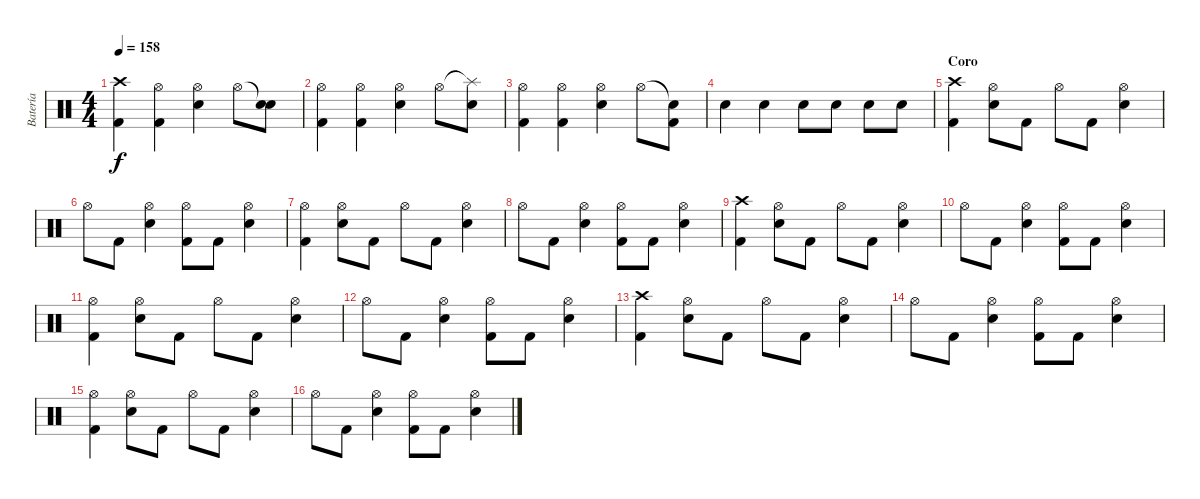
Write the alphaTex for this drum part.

\track ("Batería" "Batería") {instrument percussion}
\staff {score}
\articulation defaults
\ts (4 4)
\tempo 158
\clef neutral
\ks c
("Crash high (hit)" "Kick (hit) 2").4{dy f} ("Hi-Hat (open)" "Kick (hit) 2").4 ("Hi-Hat (open)" "Electric Snare (hit)").4 "Hi-Hat (open)".8 ("Snare (hit)"{t} "Electric Snare (hit)").8 |
("Hi-Hat (open)" "Kick (hit) 2").4 ("Hi-Hat (open)" "Kick (hit) 2").4 ("Hi-Hat (open)" "Electric Snare (hit)").4 "Hi-Hat (open)".8 ("Splash (hit)"{t} "Electric Snare (hit)").8 |
("Hi-Hat (open)" "Kick (hit) 2").4 ("Hi-Hat (open)" "Kick (hit) 2").4 ("Hi-Hat (open)" "Electric Snare (hit)").4 "Hi-Hat (open)".8 ("Snare (hit)"{t} "Kick (hit) 2").8 |
"Electric Snare (hit)".4 "Electric Snare (hit)".4 "Electric Snare (hit)".8 "Electric Snare (hit)".8 "Electric Snare (hit)".8 "Electric Snare (hit)".8 |
\section ("" "Coro")
("Crash high (hit)" "Kick (hit) 2").4 ("Hi-Hat (open)" "Electric Snare (hit)").8 "Kick (hit) 2".8 "Hi-Hat (open)".8 "Kick (hit) 2".8 ("Hi-Hat (open)" "Electric Snare (hit)").4 |
"Hi-Hat (open)".8 "Kick (hit) 2".8 ("Hi-Hat (open)" "Electric Snare (hit)").4 ("Hi-Hat (open)" "Kick (hit) 2").8 "Kick (hit) 2".8 ("Hi-Hat (open)" "Electric Snare (hit)").4 |
("Hi-Hat (open)" "Kick (hit) 2").4 ("Hi-Hat (open)" "Electric Snare (hit)").8 "Kick (hit) 2".8 "Hi-Hat (open)".8 "Kick (hit) 2".8 ("Hi-Hat (open)" "Electric Snare (hit)").4 |
"Hi-Hat (open)".8 "Kick (hit) 2".8 ("Hi-Hat (open)" "Electric Snare (hit)").4 ("Hi-Hat (open)" "Kick (hit) 2").8 "Kick (hit) 2".8 ("Hi-Hat (open)" "Electric Snare (hit)").4 |
("Crash high (hit)" "Kick (hit) 2").4 ("Hi-Hat (open)" "Electric Snare (hit)").8 "Kick (hit) 2".8 "Hi-Hat (open)".8 "Kick (hit) 2".8 ("Hi-Hat (open)" "Electric Snare (hit)").4 |
"Hi-Hat (open)".8 "Kick (hit) 2".8 ("Hi-Hat (open)" "Electric Snare (hit)").4 ("Hi-Hat (open)" "Kick (hit) 2").8 "Kick (hit) 2".8 ("Hi-Hat (open)" "Electric Snare (hit)").4 |
("Hi-Hat (open)" "Kick (hit) 2").4 ("Hi-Hat (open)" "Electric Snare (hit)").8 "Kick (hit) 2".8 "Hi-Hat (open)".8 "Kick (hit) 2".8 ("Hi-Hat (open)" "Electric Snare (hit)").4 |
"Hi-Hat (open)".8 "Kick (hit) 2".8 ("Hi-Hat (open)" "Electric Snare (hit)").4 ("Hi-Hat (open)" "Kick (hit) 2").8 "Kick (hit) 2".8 ("Hi-Hat (open)" "Electric Snare (hit)").4 |
("Crash high (hit)" "Kick (hit) 2").4 ("Hi-Hat (open)" "Electric Snare (hit)").8 "Kick (hit) 2".8 "Hi-Hat (open)".8 "Kick (hit) 2".8 ("Hi-Hat (open)" "Electric Snare (hit)").4 |
"Hi-Hat (open)".8 "Kick (hit) 2".8 ("Hi-Hat (open)" "Electric Snare (hit)").4 ("Hi-Hat (open)" "Kick (hit) 2").8 "Kick (hit) 2".8 ("Hi-Hat (open)" "Electric Snare (hit)").4 |
("Hi-Hat (open)" "Kick (hit) 2").4 ("Hi-Hat (open)" "Electric Snare (hit)").8 "Kick (hit) 2".8 "Hi-Hat (open)".8 "Kick (hit) 2".8 ("Hi-Hat (open)" "Electric Snare (hit)").4 |
"Hi-Hat (open)".8 "Kick (hit) 2".8 ("Hi-Hat (open)" "Electric Snare (hit)").4 ("Hi-Hat (open)" "Kick (hit) 2").8 "Kick (hit) 2".8 ("Hi-Hat (open)" "Electric Snare (hit)").4
